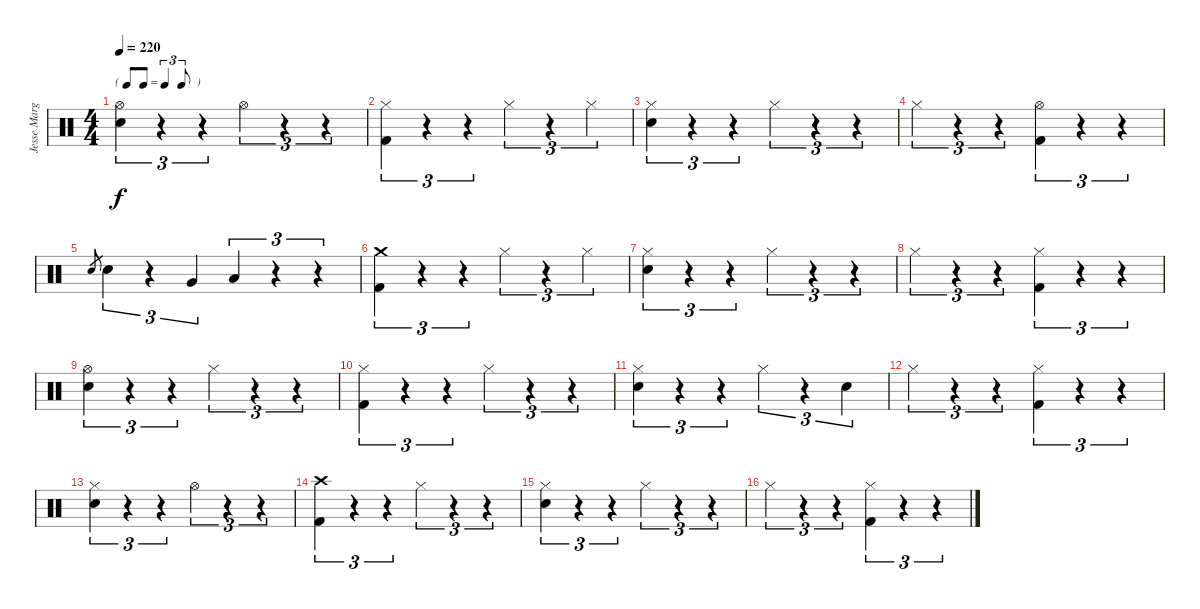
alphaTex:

\track ("Jesse Margera" "Jesse Marg") {instrument percussion}
\staff {score}
\articulation defaults
\ts (4 4)
\tf triplet8th
\tempo 220
\clef neutral
\ks c
("Hi-Hat (open)" "Electric Snare (hit)").4{tu (3 2) dy f} r.4{tu (3 2)} r.4{tu (3 2)} "Hi-Hat (open)".4{tu (3 2)} r.4{tu (3 2)} r.4{tu (3 2)} |
("Hi-Hat (closed)" "Kick (hit) 2").4{tu (3 2)} r.4{tu (3 2)} r.4{tu (3 2)} "Hi-Hat (closed)".4{tu (3 2)} r.4{tu (3 2)} "Hi-Hat (closed)".4{tu (3 2)} |
("Hi-Hat (closed)" "Electric Snare (hit)").4{tu (3 2)} r.4{tu (3 2)} r.4{tu (3 2)} "Hi-Hat (closed)".4{tu (3 2)} r.4{tu (3 2)} r.4{tu (3 2)} |
"Hi-Hat (closed)".4{tu (3 2)} r.4{tu (3 2)} r.4{tu (3 2)} ("Hi-Hat (open)" "Kick (hit) 2").4{tu (3 2)} r.4{tu (3 2)} r.4{tu (3 2)} |
"Electric Snare (hit)".8{gr} "Electric Snare (hit)".4{tu (3 2)} r.4{tu (3 2)} "Very Low Tom (hit)".4{tu (3 2)} "Low Floor Tom (hit)".4{tu (3 2)} r.4{tu (3 2)} r.4{tu (3 2)} |
("Crash medium (hit)" "Kick (hit) 2").4{tu (3 2)} r.4{tu (3 2)} r.4{tu (3 2)} "Hi-Hat (closed)".4{tu (3 2)} r.4{tu (3 2)} "Hi-Hat (closed)".4{tu (3 2)} |
("Hi-Hat (closed)" "Electric Snare (hit)").4{tu (3 2)} r.4{tu (3 2)} r.4{tu (3 2)} "Hi-Hat (closed)".4{tu (3 2)} r.4{tu (3 2)} r.4{tu (3 2)} |
"Hi-Hat (closed)".4{tu (3 2)} r.4{tu (3 2)} r.4{tu (3 2)} ("Hi-Hat (closed)" "Kick (hit) 2").4{tu (3 2)} r.4{tu (3 2)} r.4{tu (3 2)} |
("Hi-Hat (open)" "Electric Snare (hit)").4{tu (3 2)} r.4{tu (3 2)} r.4{tu (3 2)} "Hi-Hat (closed)".4{tu (3 2)} r.4{tu (3 2)} r.4{tu (3 2)} |
("Hi-Hat (closed)" "Kick (hit) 2").4{tu (3 2)} r.4{tu (3 2)} r.4{tu (3 2)} "Hi-Hat (closed)".4{tu (3 2)} r.4{tu (3 2)} r.4{tu (3 2)} |
("Hi-Hat (closed)" "Electric Snare (hit)").4{tu (3 2)} r.4{tu (3 2)} r.4{tu (3 2)} "Hi-Hat (closed)".4{tu (3 2)} r.4{tu (3 2)} "Electric Snare (hit)".4{tu (3 2)} |
"Hi-Hat (closed)".4{tu (3 2)} r.4{tu (3 2)} r.4{tu (3 2)} ("Hi-Hat (closed)" "Kick (hit) 2").4{tu (3 2)} r.4{tu (3 2)} r.4{tu (3 2)} |
("Hi-Hat (closed)" "Electric Snare (hit)").4{tu (3 2)} r.4{tu (3 2)} r.4{tu (3 2)} "Hi-Hat (open)".4{tu (3 2)} r.4{tu (3 2)} r.4{tu (3 2)} |
("Crash high (hit)" "Kick (hit) 2").4{tu (3 2)} r.4{tu (3 2)} r.4{tu (3 2)} "Hi-Hat (closed)".4{tu (3 2)} r.4{tu (3 2)} r.4{tu (3 2)} |
("Hi-Hat (closed)" "Electric Snare (hit)").4{tu (3 2)} r.4{tu (3 2)} r.4{tu (3 2)} "Hi-Hat (closed)".4{tu (3 2)} r.4{tu (3 2)} r.4{tu (3 2)} |
"Hi-Hat (closed)".4{tu (3 2)} r.4{tu (3 2)} r.4{tu (3 2)} ("Hi-Hat (closed)" "Kick (hit) 2").4{tu (3 2)} r.4{tu (3 2)} r.4{tu (3 2)}
